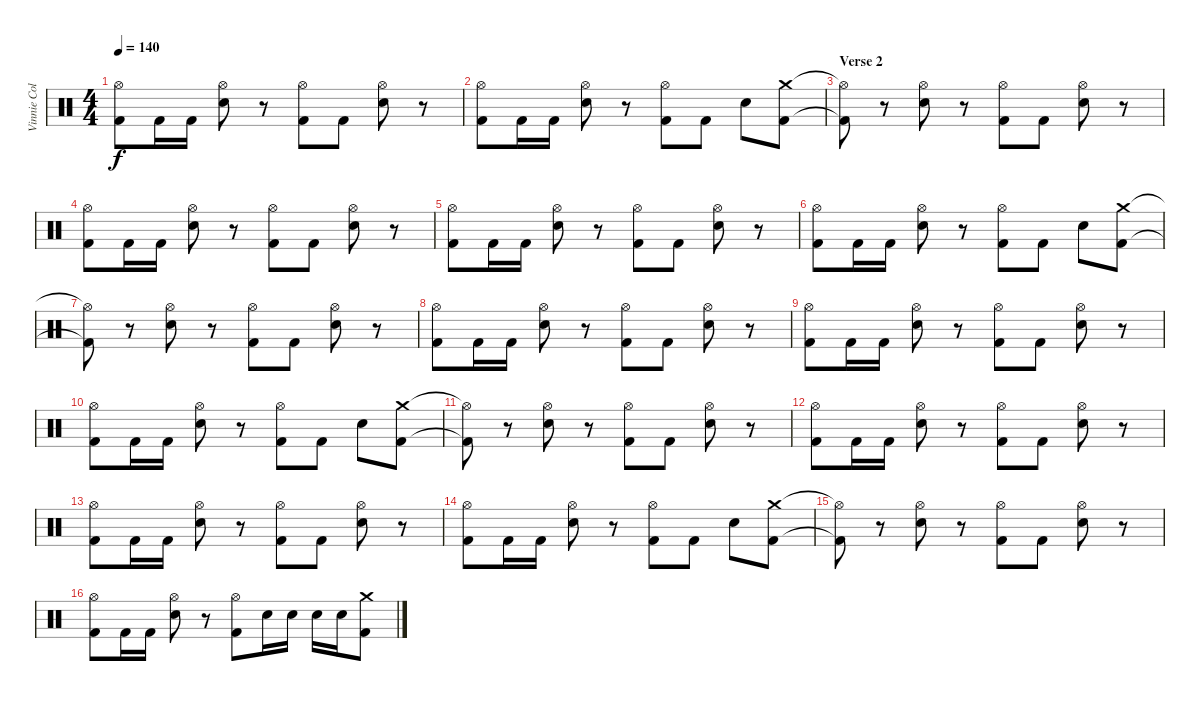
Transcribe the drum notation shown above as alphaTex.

\track ("Vinnie Colaiuta" "Vinnie Col") {instrument percussion}
\staff {score}
\articulation defaults
\ts (4 4)
\tempo 140
\clef neutral
\ks c
("Hi-Hat (open)" "Kick (hit) 2").8{dy f} "Kick (hit) 2".16 "Kick (hit) 2".16 ("Hi-Hat (open)" "Snare (hit) 2").8 r.8 ("Hi-Hat (open)" "Kick (hit) 2").8 "Kick (hit) 2".8 ("Hi-Hat (open)" "Snare (hit) 2").8 r.8 |
("Hi-Hat (open)" "Kick (hit) 2").8 "Kick (hit) 2".16 "Kick (hit) 2".16 ("Hi-Hat (open)" "Snare (hit) 2").8 r.8 ("Hi-Hat (open)" "Kick (hit) 2").8 "Kick (hit) 2".8 "Snare (hit) 2".8 ("Crash medium (hit)" "Kick (hit) 2").8 |
\section ("" "Verse 2")
("Hi-Hat (open)"{t} "Kick (hit) 2"{t}).8 r.8 ("Hi-Hat (open)" "Snare (hit) 2").8 r.8 ("Hi-Hat (open)" "Kick (hit) 2").8 "Kick (hit) 2".8 ("Hi-Hat (open)" "Snare (hit) 2").8 r.8 |
("Hi-Hat (open)" "Kick (hit) 2").8 "Kick (hit) 2".16 "Kick (hit) 2".16 ("Hi-Hat (open)" "Snare (hit) 2").8 r.8 ("Hi-Hat (open)" "Kick (hit) 2").8 "Kick (hit) 2".8 ("Hi-Hat (open)" "Snare (hit) 2").8 r.8 |
("Hi-Hat (open)" "Kick (hit) 2").8 "Kick (hit) 2".16 "Kick (hit) 2".16 ("Hi-Hat (open)" "Snare (hit) 2").8 r.8 ("Hi-Hat (open)" "Kick (hit) 2").8 "Kick (hit) 2".8 ("Hi-Hat (open)" "Snare (hit) 2").8 r.8 |
("Hi-Hat (open)" "Kick (hit) 2").8 "Kick (hit) 2".16 "Kick (hit) 2".16 ("Hi-Hat (open)" "Snare (hit) 2").8 r.8 ("Hi-Hat (open)" "Kick (hit) 2").8 "Kick (hit) 2".8 "Snare (hit) 2".8 ("Crash medium (hit)" "Kick (hit) 2").8 |
("Hi-Hat (open)"{t} "Kick (hit) 2"{t}).8 r.8 ("Hi-Hat (open)" "Snare (hit) 2").8 r.8 ("Hi-Hat (open)" "Kick (hit) 2").8 "Kick (hit) 2".8 ("Hi-Hat (open)" "Snare (hit) 2").8 r.8 |
("Hi-Hat (open)" "Kick (hit) 2").8 "Kick (hit) 2".16 "Kick (hit) 2".16 ("Hi-Hat (open)" "Snare (hit) 2").8 r.8 ("Hi-Hat (open)" "Kick (hit) 2").8 "Kick (hit) 2".8 ("Hi-Hat (open)" "Snare (hit) 2").8 r.8 |
("Hi-Hat (open)" "Kick (hit) 2").8 "Kick (hit) 2".16 "Kick (hit) 2".16 ("Hi-Hat (open)" "Snare (hit) 2").8 r.8 ("Hi-Hat (open)" "Kick (hit) 2").8 "Kick (hit) 2".8 ("Hi-Hat (open)" "Snare (hit) 2").8 r.8 |
("Hi-Hat (open)" "Kick (hit) 2").8 "Kick (hit) 2".16 "Kick (hit) 2".16 ("Hi-Hat (open)" "Snare (hit) 2").8 r.8 ("Hi-Hat (open)" "Kick (hit) 2").8 "Kick (hit) 2".8 "Snare (hit) 2".8 ("Crash medium (hit)" "Kick (hit) 2").8 |
("Hi-Hat (open)"{t} "Kick (hit) 2"{t}).8 r.8 ("Hi-Hat (open)" "Snare (hit) 2").8 r.8 ("Hi-Hat (open)" "Kick (hit) 2").8 "Kick (hit) 2".8 ("Hi-Hat (open)" "Snare (hit) 2").8 r.8 |
("Hi-Hat (open)" "Kick (hit) 2").8 "Kick (hit) 2".16 "Kick (hit) 2".16 ("Hi-Hat (open)" "Snare (hit) 2").8 r.8 ("Hi-Hat (open)" "Kick (hit) 2").8 "Kick (hit) 2".8 ("Hi-Hat (open)" "Snare (hit) 2").8 r.8 |
("Hi-Hat (open)" "Kick (hit) 2").8 "Kick (hit) 2".16 "Kick (hit) 2".16 ("Hi-Hat (open)" "Snare (hit) 2").8 r.8 ("Hi-Hat (open)" "Kick (hit) 2").8 "Kick (hit) 2".8 ("Hi-Hat (open)" "Snare (hit) 2").8 r.8 |
("Hi-Hat (open)" "Kick (hit) 2").8 "Kick (hit) 2".16 "Kick (hit) 2".16 ("Hi-Hat (open)" "Snare (hit) 2").8 r.8 ("Hi-Hat (open)" "Kick (hit) 2").8 "Kick (hit) 2".8 "Snare (hit) 2".8 ("Crash medium (hit)" "Kick (hit) 2").8 |
("Hi-Hat (open)"{t} "Kick (hit) 2"{t}).8 r.8 ("Hi-Hat (open)" "Snare (hit) 2").8 r.8 ("Hi-Hat (open)" "Kick (hit) 2").8 "Kick (hit) 2".8 ("Hi-Hat (open)" "Snare (hit) 2").8 r.8 |
("Hi-Hat (open)" "Kick (hit) 2").8 "Kick (hit) 2".16 "Kick (hit) 2".16 ("Hi-Hat (open)" "Snare (hit) 2").8 r.8 ("Hi-Hat (open)" "Kick (hit) 2").8 "Snare (hit) 2".16 "Snare (hit) 2".16 "Snare (hit) 2".16 "Snare (hit) 2".16 ("Crash medium (hit)" "Kick (hit) 2").8
